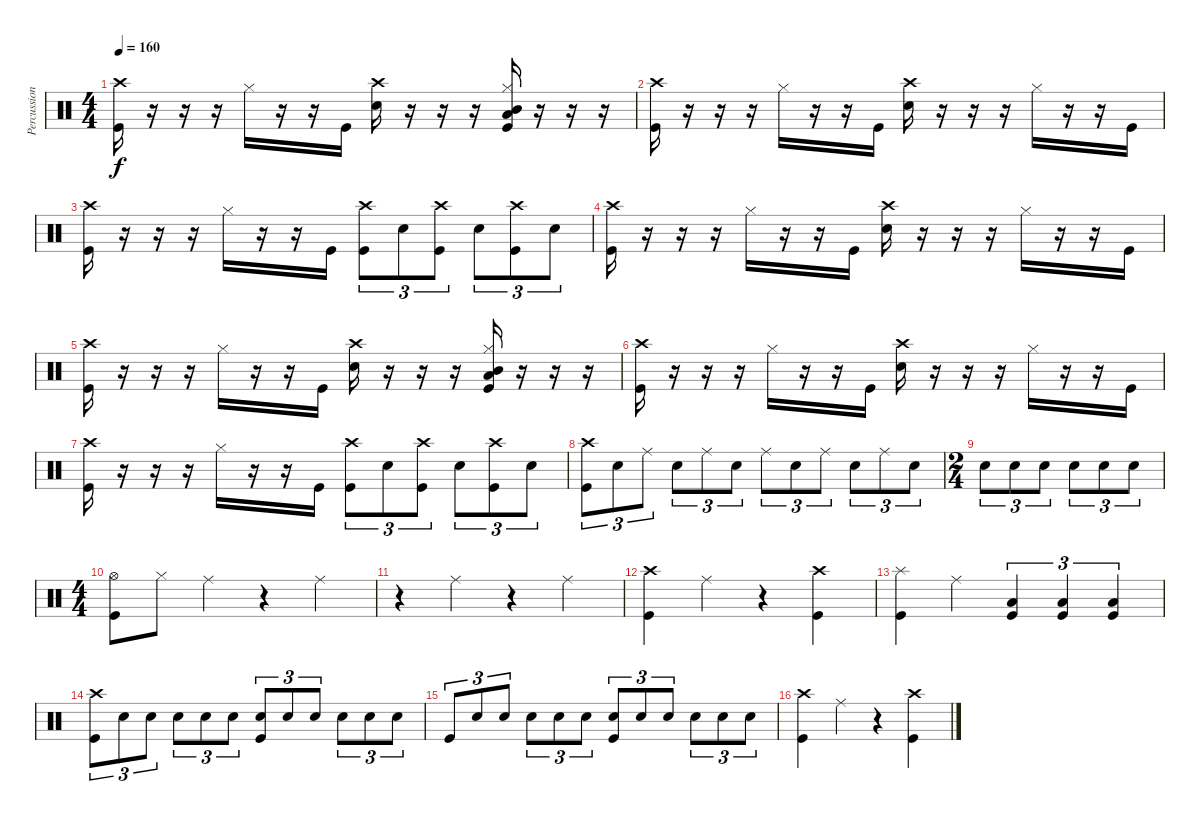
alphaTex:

\track ("Percussion" "Percussion") {instrument percussion}
\staff {score}
\articulation defaults
\ts (4 4)
\tempo 160
\clef neutral
\ks c
("Kick (hit)" "Crash high (hit)").16{dy f} r.16 r.16 r.16 "Hi-Hat (closed)".16 r.16 r.16 "Kick (hit)".16 ("Crash high (hit)" "Snare (hit) 2").16 r.16 r.16 r.16 ("Kick (hit)" "Low Floor Tom (hit)" "Mid Tom (hit)" "Hi-Hat (closed)").16 r.16 r.16 r.16 |
("Kick (hit)" "Crash high (hit)").16 r.16 r.16 r.16 "Hi-Hat (closed)".16 r.16 r.16 "Kick (hit)".16 ("Crash high (hit)" "Snare (hit) 2").16 r.16 r.16 r.16 "Hi-Hat (closed)".16 r.16 r.16 "Kick (hit)".16 |
("Kick (hit)" "Crash high (hit)").16 r.16 r.16 r.16 "Hi-Hat (closed)".16 r.16 r.16 "Kick (hit)".16 ("Kick (hit)" "Crash high (hit)").8{tu (3 2)} "Snare (hit) 2".8{tu (3 2)} ("Kick (hit)" "Crash high (hit)").8{tu (3 2)} "Snare (hit) 2".8{tu (3 2)} ("Kick (hit)" "Crash high (hit)").8{tu (3 2)} "Snare (hit) 2".8{tu (3 2)} |
("Kick (hit)" "Crash high (hit)").16 r.16 r.16 r.16 "Hi-Hat (closed)".16 r.16 r.16 "Kick (hit)".16 ("Crash high (hit)" "Snare (hit) 2").16 r.16 r.16 r.16 "Hi-Hat (closed)".16 r.16 r.16 "Kick (hit)".16 |
("Kick (hit)" "Crash high (hit)").16 r.16 r.16 r.16 "Hi-Hat (closed)".16 r.16 r.16 "Kick (hit)".16 ("Crash high (hit)" "Snare (hit) 2").16 r.16 r.16 r.16 ("Kick (hit)" "Low Floor Tom (hit)" "Mid Tom (hit)" "Hi-Hat (closed)").16 r.16 r.16 r.16 |
("Kick (hit)" "Crash high (hit)").16 r.16 r.16 r.16 "Hi-Hat (closed)".16 r.16 r.16 "Kick (hit)".16 ("Crash high (hit)" "Snare (hit) 2").16 r.16 r.16 r.16 "Hi-Hat (closed)".16 r.16 r.16 "Kick (hit)".16 |
("Kick (hit)" "Crash high (hit)").16 r.16 r.16 r.16 "Hi-Hat (closed)".16 r.16 r.16 "Kick (hit)".16 ("Kick (hit)" "Crash high (hit)").8{tu (3 2)} "Snare (hit) 2".8{tu (3 2)} ("Kick (hit)" "Crash high (hit)").8{tu (3 2)} "Snare (hit) 2".8{tu (3 2)} ("Kick (hit)" "Crash high (hit)").8{tu (3 2)} "Snare (hit) 2".8{tu (3 2)} |
("Kick (hit)" "Crash high (hit)").8{tu (3 2)} "Snare (hit) 2".8{tu (3 2)} "Ride (middle)".8{tu (3 2)} "Snare (hit) 2".8{tu (3 2)} "Ride (middle)".8{tu (3 2)} "Snare (hit) 2".8{tu (3 2)} "Ride (middle)".8{tu (3 2)} "Snare (hit) 2".8{tu (3 2)} "Ride (middle)".8{tu (3 2)} "Snare (hit) 2".8{tu (3 2)} "Ride (middle)".8{tu (3 2)} "Snare (hit) 2".8{tu (3 2)} |
\ts (2 4)
"Snare (hit) 2".8{tu (3 2)} "Snare (hit) 2".8{tu (3 2)} "Snare (hit) 2".8{tu (3 2)} "Snare (hit) 2".8{tu (3 2)} "Snare (hit) 2".8{tu (3 2)} "Snare (hit) 2".8{tu (3 2)} |
\ts (4 4)
("Kick (hit)" "Hi-Hat (open)").8 "Hi-Hat (closed)".8 "Ride (middle)".4 r.4 "Ride (middle)".4 |
r.4 "Ride (middle)".4 r.4 "Ride (middle)".4 |
("Kick (hit)" "Crash high (hit)").4 "Ride (middle)".4 r.4 ("Kick (hit)" "Crash high (hit)").4 |
("Kick (hit)" "Splash (hit)").4 "Ride (middle)".4 ("Kick (hit)" "Low Floor Tom (hit)").4{tu (3 2)} ("Kick (hit)" "Low Floor Tom (hit)").4{tu (3 2)} ("Kick (hit)" "Low Floor Tom (hit)").4{tu (3 2)} |
("Kick (hit)" "Crash high (hit)").8{tu (3 2)} "Snare (hit) 2".8{tu (3 2) volume 5} "Snare (hit) 2".8{tu (3 2)} "Snare (hit) 2".8{tu (3 2)} "Snare (hit) 2".8{tu (3 2)} "Snare (hit) 2".8{tu (3 2)} ("Snare (hit) 2" "Kick (hit)").8{tu (3 2) volume 13} "Snare (hit) 2".8{tu (3 2) volume 5} "Snare (hit) 2".8{tu (3 2)} "Snare (hit) 2".8{tu (3 2)} "Snare (hit) 2".8{tu (3 2)} "Snare (hit) 2".8{tu (3 2)} |
"Kick (hit)".8{tu (3 2) volume 13} "Snare (hit) 2".8{tu (3 2) volume 5} "Snare (hit) 2".8{tu (3 2)} "Snare (hit) 2".8{tu (3 2)} "Snare (hit) 2".8{tu (3 2)} "Snare (hit) 2".8{tu (3 2)} ("Snare (hit) 2" "Kick (hit)").8{tu (3 2) volume 13} "Snare (hit) 2".8{tu (3 2) volume 5} "Snare (hit) 2".8{tu (3 2)} "Snare (hit) 2".8{tu (3 2)} "Snare (hit) 2".8{tu (3 2)} "Snare (hit) 2".8{tu (3 2)} |
("Kick (hit)" "Crash high (hit)").4{volume 13} "Ride (middle)".4 r.4 ("Kick (hit)" "Crash high (hit)").4
